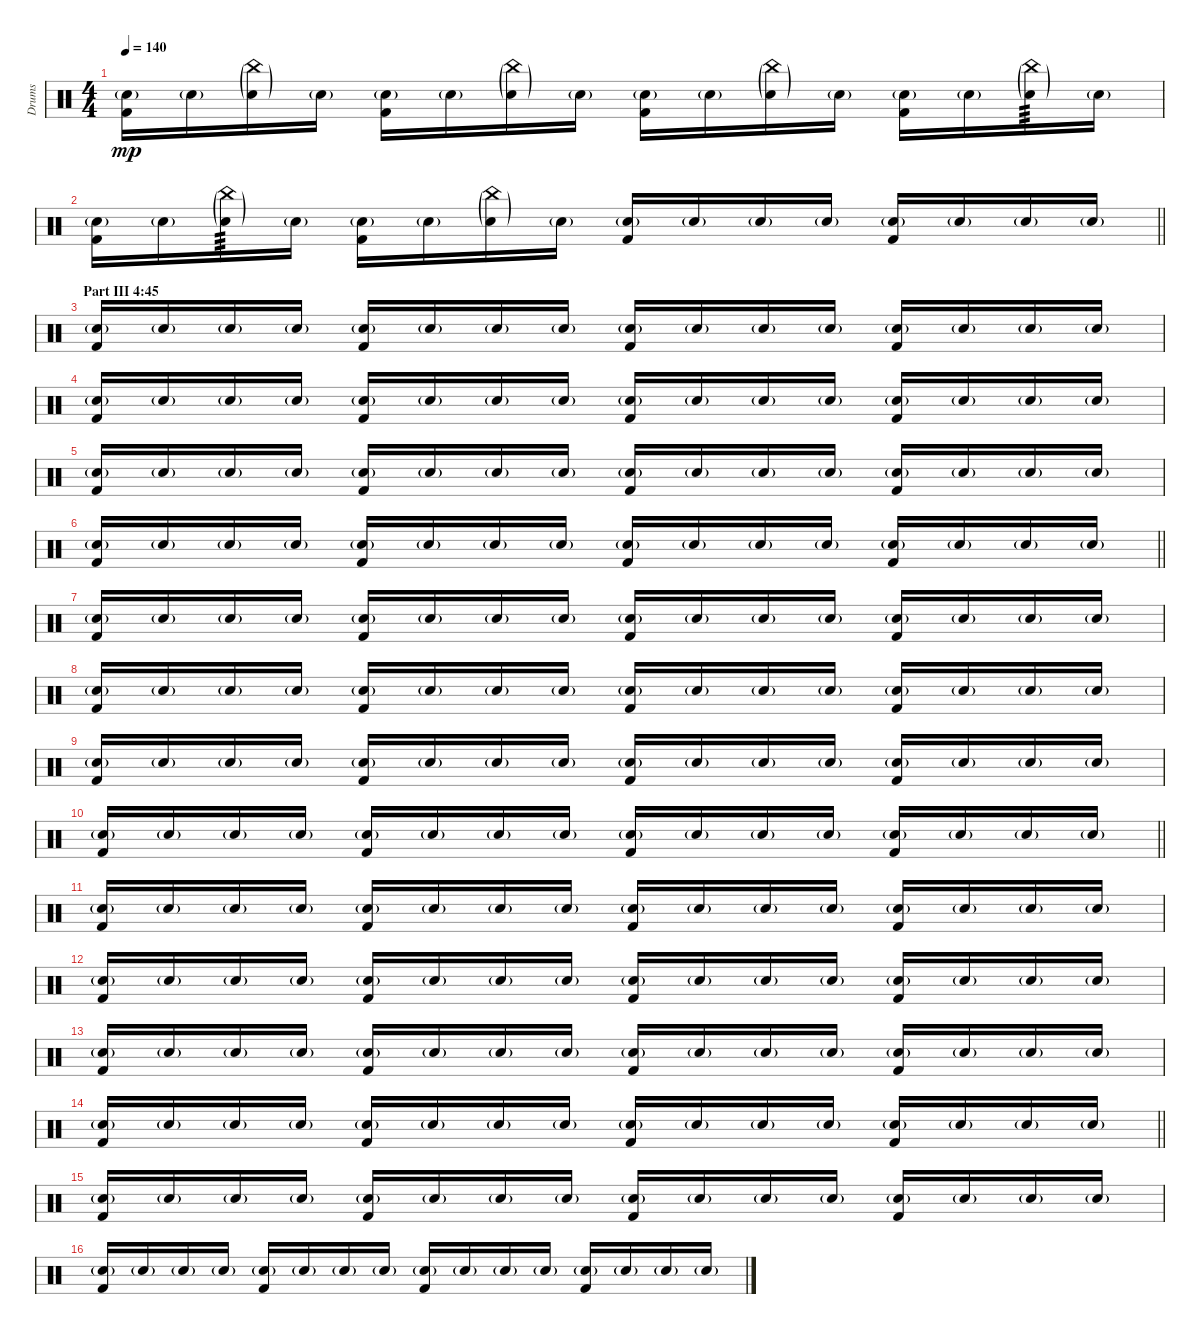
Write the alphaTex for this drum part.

\track ("Drums" "Drums") {instrument percussion}
\staff {score}
\articulation defaults
\ts (4 4)
\tempo 140
\clef neutral
\ks c
("Kick (hit) 2" "Snare (hit) 2"{g}).16{dy mp} "Snare (hit) 2"{g}.16 ("Snare (hit) 2"{g} "China (hit)"{g}).16 "Snare (hit) 2"{g}.16 ("Kick (hit) 2" "Snare (hit) 2"{g}).16 "Snare (hit) 2"{g}.16 ("Snare (hit) 2"{g} "China (hit)"{g}).16 "Snare (hit) 2"{g}.16 ("Kick (hit) 2" "Snare (hit) 2"{g}).16 "Snare (hit) 2"{g}.16 ("Snare (hit) 2"{g} "China (hit)"{g}).16 "Snare (hit) 2"{g}.16 ("Kick (hit) 2" "Snare (hit) 2"{g}).16 "Snare (hit) 2"{g}.16 ("Snare (hit) 2"{g} "China (hit)"{g}).16{tp 3} "Snare (hit) 2"{g}.16 |
\barLineRight lightlight
("Kick (hit) 2" "Snare (hit) 2"{g}).16 "Snare (hit) 2"{g}.16 ("Snare (hit) 2"{g} "China (hit)"{g}).16{tp 3} "Snare (hit) 2"{g}.16 ("Kick (hit) 2" "Snare (hit) 2"{g}).16 "Snare (hit) 2"{g}.16 ("Snare (hit) 2"{g} "China (hit)"{g}).16 "Snare (hit) 2"{g}.16 ("Kick (hit) 2" "Snare (hit) 2"{g}).16 "Snare (hit) 2"{g}.16 "Snare (hit) 2"{g}.16 "Snare (hit) 2"{g}.16 ("Kick (hit) 2" "Snare (hit) 2"{g}).16 "Snare (hit) 2"{g}.16 "Snare (hit) 2"{g}.16 "Snare (hit) 2"{g}.16 |
\section ("" "Part III 4:45")
("Kick (hit) 2" "Snare (hit) 2"{g}).16 "Snare (hit) 2"{g}.16 "Snare (hit) 2"{g}.16 "Snare (hit) 2"{g}.16 ("Kick (hit) 2" "Snare (hit) 2"{g}).16 "Snare (hit) 2"{g}.16 "Snare (hit) 2"{g}.16 "Snare (hit) 2"{g}.16 ("Kick (hit) 2" "Snare (hit) 2"{g}).16 "Snare (hit) 2"{g}.16 "Snare (hit) 2"{g}.16 "Snare (hit) 2"{g}.16 ("Kick (hit) 2" "Snare (hit) 2"{g}).16 "Snare (hit) 2"{g}.16 "Snare (hit) 2"{g}.16 "Snare (hit) 2"{g}.16 |
("Kick (hit) 2" "Snare (hit) 2"{g}).16 "Snare (hit) 2"{g}.16 "Snare (hit) 2"{g}.16 "Snare (hit) 2"{g}.16 ("Kick (hit) 2" "Snare (hit) 2"{g}).16 "Snare (hit) 2"{g}.16 "Snare (hit) 2"{g}.16 "Snare (hit) 2"{g}.16 ("Kick (hit) 2" "Snare (hit) 2"{g}).16 "Snare (hit) 2"{g}.16 "Snare (hit) 2"{g}.16 "Snare (hit) 2"{g}.16 ("Kick (hit) 2" "Snare (hit) 2"{g}).16 "Snare (hit) 2"{g}.16 "Snare (hit) 2"{g}.16 "Snare (hit) 2"{g}.16 |
("Kick (hit) 2" "Snare (hit) 2"{g}).16 "Snare (hit) 2"{g}.16 "Snare (hit) 2"{g}.16 "Snare (hit) 2"{g}.16 ("Kick (hit) 2" "Snare (hit) 2"{g}).16 "Snare (hit) 2"{g}.16 "Snare (hit) 2"{g}.16 "Snare (hit) 2"{g}.16 ("Kick (hit) 2" "Snare (hit) 2"{g}).16 "Snare (hit) 2"{g}.16 "Snare (hit) 2"{g}.16 "Snare (hit) 2"{g}.16 ("Kick (hit) 2" "Snare (hit) 2"{g}).16 "Snare (hit) 2"{g}.16 "Snare (hit) 2"{g}.16 "Snare (hit) 2"{g}.16 |
\barLineRight lightlight
("Kick (hit) 2" "Snare (hit) 2"{g}).16 "Snare (hit) 2"{g}.16 "Snare (hit) 2"{g}.16 "Snare (hit) 2"{g}.16 ("Kick (hit) 2" "Snare (hit) 2"{g}).16 "Snare (hit) 2"{g}.16 "Snare (hit) 2"{g}.16 "Snare (hit) 2"{g}.16 ("Kick (hit) 2" "Snare (hit) 2"{g}).16 "Snare (hit) 2"{g}.16 "Snare (hit) 2"{g}.16 "Snare (hit) 2"{g}.16 ("Kick (hit) 2" "Snare (hit) 2"{g}).16 "Snare (hit) 2"{g}.16 "Snare (hit) 2"{g}.16 "Snare (hit) 2"{g}.16 |
\section ("" "")
("Kick (hit) 2" "Snare (hit) 2"{g}).16 "Snare (hit) 2"{g}.16 "Snare (hit) 2"{g}.16 "Snare (hit) 2"{g}.16 ("Kick (hit) 2" "Snare (hit) 2"{g}).16 "Snare (hit) 2"{g}.16 "Snare (hit) 2"{g}.16 "Snare (hit) 2"{g}.16 ("Kick (hit) 2" "Snare (hit) 2"{g}).16 "Snare (hit) 2"{g}.16 "Snare (hit) 2"{g}.16 "Snare (hit) 2"{g}.16 ("Kick (hit) 2" "Snare (hit) 2"{g}).16 "Snare (hit) 2"{g}.16 "Snare (hit) 2"{g}.16 "Snare (hit) 2"{g}.16 |
("Kick (hit) 2" "Snare (hit) 2"{g}).16 "Snare (hit) 2"{g}.16 "Snare (hit) 2"{g}.16 "Snare (hit) 2"{g}.16 ("Kick (hit) 2" "Snare (hit) 2"{g}).16 "Snare (hit) 2"{g}.16 "Snare (hit) 2"{g}.16 "Snare (hit) 2"{g}.16 ("Kick (hit) 2" "Snare (hit) 2"{g}).16 "Snare (hit) 2"{g}.16 "Snare (hit) 2"{g}.16 "Snare (hit) 2"{g}.16 ("Kick (hit) 2" "Snare (hit) 2"{g}).16 "Snare (hit) 2"{g}.16 "Snare (hit) 2"{g}.16 "Snare (hit) 2"{g}.16 |
("Kick (hit) 2" "Snare (hit) 2"{g}).16 "Snare (hit) 2"{g}.16 "Snare (hit) 2"{g}.16 "Snare (hit) 2"{g}.16 ("Kick (hit) 2" "Snare (hit) 2"{g}).16 "Snare (hit) 2"{g}.16 "Snare (hit) 2"{g}.16 "Snare (hit) 2"{g}.16 ("Kick (hit) 2" "Snare (hit) 2"{g}).16 "Snare (hit) 2"{g}.16 "Snare (hit) 2"{g}.16 "Snare (hit) 2"{g}.16 ("Kick (hit) 2" "Snare (hit) 2"{g}).16 "Snare (hit) 2"{g}.16 "Snare (hit) 2"{g}.16 "Snare (hit) 2"{g}.16 |
\barLineRight lightlight
("Kick (hit) 2" "Snare (hit) 2"{g}).16 "Snare (hit) 2"{g}.16 "Snare (hit) 2"{g}.16 "Snare (hit) 2"{g}.16 ("Kick (hit) 2" "Snare (hit) 2"{g}).16 "Snare (hit) 2"{g}.16 "Snare (hit) 2"{g}.16 "Snare (hit) 2"{g}.16 ("Kick (hit) 2" "Snare (hit) 2"{g}).16 "Snare (hit) 2"{g}.16 "Snare (hit) 2"{g}.16 "Snare (hit) 2"{g}.16 ("Kick (hit) 2" "Snare (hit) 2"{g}).16 "Snare (hit) 2"{g}.16 "Snare (hit) 2"{g}.16 "Snare (hit) 2"{g}.16 |
\section ("" "")
("Kick (hit) 2" "Snare (hit) 2"{g}).16 "Snare (hit) 2"{g}.16 "Snare (hit) 2"{g}.16 "Snare (hit) 2"{g}.16 ("Kick (hit) 2" "Snare (hit) 2"{g}).16 "Snare (hit) 2"{g}.16 "Snare (hit) 2"{g}.16 "Snare (hit) 2"{g}.16 ("Kick (hit) 2" "Snare (hit) 2"{g}).16 "Snare (hit) 2"{g}.16 "Snare (hit) 2"{g}.16 "Snare (hit) 2"{g}.16 ("Kick (hit) 2" "Snare (hit) 2"{g}).16 "Snare (hit) 2"{g}.16 "Snare (hit) 2"{g}.16 "Snare (hit) 2"{g}.16 |
("Kick (hit) 2" "Snare (hit) 2"{g}).16 "Snare (hit) 2"{g}.16 "Snare (hit) 2"{g}.16 "Snare (hit) 2"{g}.16 ("Kick (hit) 2" "Snare (hit) 2"{g}).16 "Snare (hit) 2"{g}.16 "Snare (hit) 2"{g}.16 "Snare (hit) 2"{g}.16 ("Kick (hit) 2" "Snare (hit) 2"{g}).16 "Snare (hit) 2"{g}.16 "Snare (hit) 2"{g}.16 "Snare (hit) 2"{g}.16 ("Kick (hit) 2" "Snare (hit) 2"{g}).16 "Snare (hit) 2"{g}.16 "Snare (hit) 2"{g}.16 "Snare (hit) 2"{g}.16 |
("Kick (hit) 2" "Snare (hit) 2"{g}).16 "Snare (hit) 2"{g}.16 "Snare (hit) 2"{g}.16 "Snare (hit) 2"{g}.16 ("Kick (hit) 2" "Snare (hit) 2"{g}).16 "Snare (hit) 2"{g}.16 "Snare (hit) 2"{g}.16 "Snare (hit) 2"{g}.16 ("Kick (hit) 2" "Snare (hit) 2"{g}).16 "Snare (hit) 2"{g}.16 "Snare (hit) 2"{g}.16 "Snare (hit) 2"{g}.16 ("Kick (hit) 2" "Snare (hit) 2"{g}).16 "Snare (hit) 2"{g}.16 "Snare (hit) 2"{g}.16 "Snare (hit) 2"{g}.16 |
\barLineRight lightlight
("Kick (hit) 2" "Snare (hit) 2"{g}).16 "Snare (hit) 2"{g}.16 "Snare (hit) 2"{g}.16 "Snare (hit) 2"{g}.16 ("Kick (hit) 2" "Snare (hit) 2"{g}).16 "Snare (hit) 2"{g}.16 "Snare (hit) 2"{g}.16 "Snare (hit) 2"{g}.16 ("Kick (hit) 2" "Snare (hit) 2"{g}).16 "Snare (hit) 2"{g}.16 "Snare (hit) 2"{g}.16 "Snare (hit) 2"{g}.16 ("Kick (hit) 2" "Snare (hit) 2"{g}).16 "Snare (hit) 2"{g}.16 "Snare (hit) 2"{g}.16 "Snare (hit) 2"{g}.16 |
\section ("" "")
("Kick (hit) 2" "Snare (hit) 2"{g}).16 "Snare (hit) 2"{g}.16 "Snare (hit) 2"{g}.16 "Snare (hit) 2"{g}.16 ("Kick (hit) 2" "Snare (hit) 2"{g}).16 "Snare (hit) 2"{g}.16 "Snare (hit) 2"{g}.16 "Snare (hit) 2"{g}.16 ("Kick (hit) 2" "Snare (hit) 2"{g}).16 "Snare (hit) 2"{g}.16 "Snare (hit) 2"{g}.16 "Snare (hit) 2"{g}.16 ("Kick (hit) 2" "Snare (hit) 2"{g}).16 "Snare (hit) 2"{g}.16 "Snare (hit) 2"{g}.16 "Snare (hit) 2"{g}.16 |
("Kick (hit) 2" "Snare (hit) 2"{g}).16 "Snare (hit) 2"{g}.16 "Snare (hit) 2"{g}.16 "Snare (hit) 2"{g}.16 ("Kick (hit) 2" "Snare (hit) 2"{g}).16 "Snare (hit) 2"{g}.16 "Snare (hit) 2"{g}.16 "Snare (hit) 2"{g}.16 ("Kick (hit) 2" "Snare (hit) 2"{g}).16 "Snare (hit) 2"{g}.16 "Snare (hit) 2"{g}.16 "Snare (hit) 2"{g}.16 ("Kick (hit) 2" "Snare (hit) 2"{g}).16 "Snare (hit) 2"{g}.16 "Snare (hit) 2"{g}.16 "Snare (hit) 2"{g}.16
